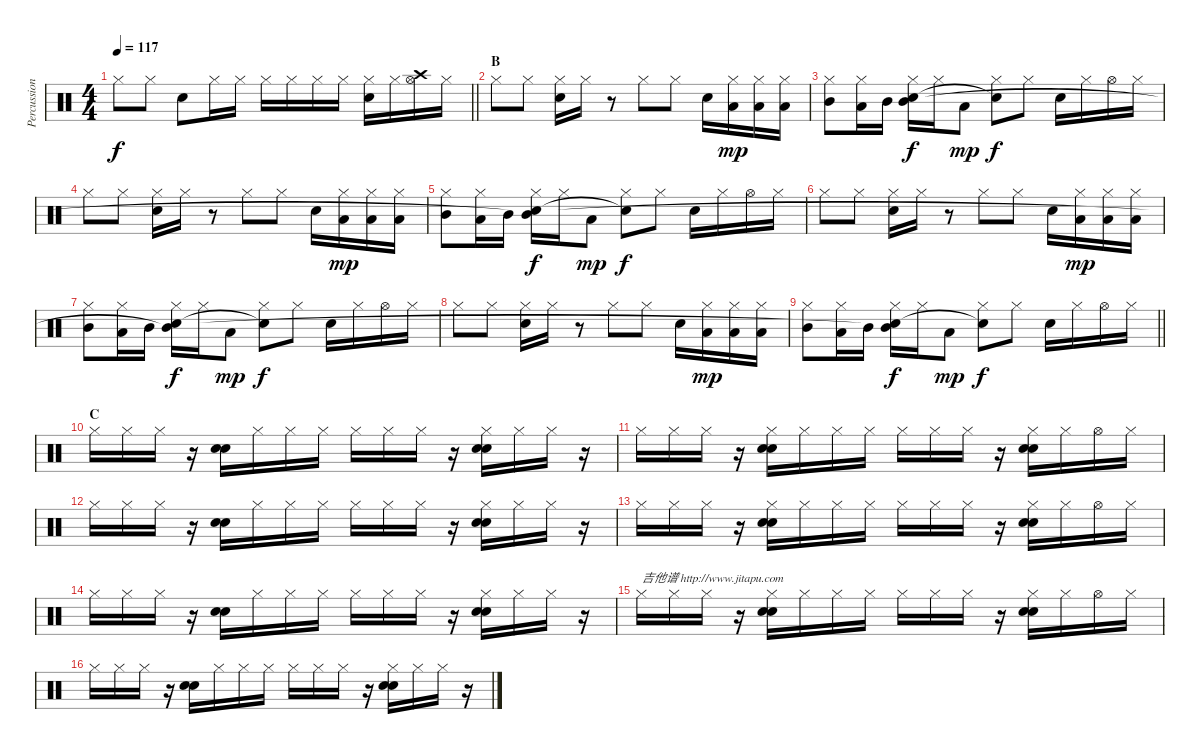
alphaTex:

\track ("Percussions" "Percussion") {instrument percussion}
\staff {score}
\articulation defaults
\ts (4 4)
\tempo 117
\clef neutral
\barLineRight lightlight
\ks c "Hi-Hat (closed)".8{dy f} "Hi-Hat (closed)".8 "Electric Snare (hit)".8 "Hi-Hat (closed)".16 "Hi-Hat (closed)".16 "Hi-Hat (closed)".16 "Hi-Hat (closed)".16 "Hi-Hat (closed)".16 "Hi-Hat (closed)".16
("Hi-Hat (closed)" "Electric Snare (hit)").16 "Hi-Hat (closed)".16 ("Crash high (hit)" "Hi-Hat (open)").16 "Hi-Hat (closed)".16 |
\section ("" "B")
"Hi-Hat (closed)".8 "Hi-Hat (closed)".8 ("Hi-Hat (closed)" "Electric Snare (hit)").16 "Hi-Hat (closed)".16 r.8 "Hi-Hat (closed)".8 "Hi-Hat (closed)".8 "Electric Snare (hit)".16 ("Hi-Hat (closed)" "Low Tom (hit)").16{dy mp} ("Hi-Hat (closed)" "Low Tom (hit)").16 ("Hi-Hat (closed)" "Low Tom (hit)").16 |
("Hi-Hat (closed)" "Mid Tom (hit)").8 ("Hi-Hat (closed)" "Low Tom (hit)").16 "Mid Tom (hit)".16 ("Hi-Hat (closed)" "Electric Snare (hit)" "Mid Tom (hit)").16{dy f} "Hi-Hat (closed)".16 "Low Tom (hit)".8{dy mp} ("Hi-Hat (closed)" "Snare (hit)"{t}).8{dy f} "Hi-Hat (closed)".8 "Electric Snare (hit)".16 "Hi-Hat (closed)".16 "Hi-Hat (open)".16 "Hi-Hat (closed)".16 |
"Hi-Hat (closed)".8 "Hi-Hat (closed)".8 ("Hi-Hat (closed)" "Electric Snare (hit)").16 "Hi-Hat (closed)".16 r.8 "Hi-Hat (closed)".8 "Hi-Hat (closed)".8 "Electric Snare (hit)".16 ("Hi-Hat (closed)" "Low Tom (hit)").16{dy mp} ("Hi-Hat (closed)" "Low Tom (hit)").16 ("Hi-Hat (closed)" "Low Tom (hit)").16 |
("Hi-Hat (closed)" "Mid Tom (hit)").8 ("Hi-Hat (closed)" "Low Tom (hit)").16 "Mid Tom (hit)".16 ("Hi-Hat (closed)" "Electric Snare (hit)" "Mid Tom (hit)"{t}).16{dy f} "Hi-Hat (closed)".16 "Low Tom (hit)".8{dy mp} ("Hi-Hat (closed)" "Snare (hit)"{t}).8{dy f} "Hi-Hat (closed)".8 "Electric Snare (hit)".16 "Hi-Hat (closed)".16 "Hi-Hat (open)".16 "Hi-Hat (closed)".16 |
"Hi-Hat (closed)".8 "Hi-Hat (closed)".8 ("Hi-Hat (closed)" "Electric Snare (hit)").16 "Hi-Hat (closed)".16 r.8 "Hi-Hat (closed)".8 "Hi-Hat (closed)".8 "Electric Snare (hit)".16 ("Hi-Hat (closed)" "Low Tom (hit)").16{dy mp} ("Hi-Hat (closed)" "Low Tom (hit)").16 ("Hi-Hat (closed)" "Low Tom (hit)").16 |
("Hi-Hat (closed)" "Mid Tom (hit)").8 ("Hi-Hat (closed)" "Low Tom (hit)").16 "Mid Tom (hit)".16 ("Hi-Hat (closed)" "Electric Snare (hit)" "Mid Tom (hit)"{t}).16{dy f} "Hi-Hat (closed)".16 "Low Tom (hit)".8{dy mp} ("Hi-Hat (closed)" "Snare (hit)"{t}).8{dy f} "Hi-Hat (closed)".8 "Electric Snare (hit)".16 "Hi-Hat (closed)".16 "Hi-Hat (open)".16 "Hi-Hat (closed)".16 |
"Hi-Hat (closed)".8 "Hi-Hat (closed)".8 ("Hi-Hat (closed)" "Electric Snare (hit)").16 "Hi-Hat (closed)".16 r.8 "Hi-Hat (closed)".8 "Hi-Hat (closed)".8 "Electric Snare (hit)".16 ("Hi-Hat (closed)" "Low Tom (hit)").16{dy mp} ("Hi-Hat (closed)" "Low Tom (hit)").16 ("Hi-Hat (closed)" "Low Tom (hit)").16 |
\barLineRight lightlight
("Hi-Hat (closed)" "Mid Tom (hit)").8 ("Hi-Hat (closed)" "Low Tom (hit)").16 "Mid Tom (hit)".16 ("Hi-Hat (closed)" "Electric Snare (hit)" "Mid Tom (hit)"{t}).16{dy f} "Hi-Hat (closed)".16 "Low Tom (hit)".8{dy mp} ("Hi-Hat (closed)" "Snare (hit)"{t}).8{dy f} "Hi-Hat (closed)".8 "Electric Snare (hit)".16 "Hi-Hat (closed)".16 "Hi-Hat (open)".16 "Hi-Hat (closed)".16 |
\section ("" "C")
"Hi-Hat (closed)".16 "Hi-Hat (closed)".16 "Hi-Hat (closed)".16 r.16 ("Electric Snare (hit)" "Hand Clap (hit)").16 "Hi-Hat (closed)".16 "Hi-Hat (closed)".16 "Hi-Hat (closed)".16 "Hi-Hat (closed)".16 "Hi-Hat (closed)".16 "Hi-Hat (closed)".16 r.16 ("Hi-Hat (closed)" "Electric Snare (hit)" "Hand Clap (hit)").16 "Hi-Hat (closed)".16 "Hi-Hat (closed)".16 r.16 |
"Hi-Hat (closed)".16 "Hi-Hat (closed)".16 "Hi-Hat (closed)".16 r.16 ("Hi-Hat (closed)" "Electric Snare (hit)" "Hand Clap (hit)").16 "Hi-Hat (closed)".16 "Hi-Hat (closed)".16 "Hi-Hat (closed)".16 "Hi-Hat (closed)".16 "Hi-Hat (closed)".16 "Hi-Hat (closed)".16 r.16 ("Hi-Hat (closed)" "Hand Clap (hit)" "Electric Snare (hit)").16 "Hi-Hat (closed)".16 "Hi-Hat (open)".16 "Hi-Hat (closed)".16 |
"Hi-Hat (closed)".16 "Hi-Hat (closed)".16 "Hi-Hat (closed)".16 r.16 ("Electric Snare (hit)" "Hand Clap (hit)").16 "Hi-Hat (closed)".16 "Hi-Hat (closed)".16 "Hi-Hat (closed)".16 "Hi-Hat (closed)".16 "Hi-Hat (closed)".16 "Hi-Hat (closed)".16 r.16 ("Hi-Hat (closed)" "Electric Snare (hit)" "Hand Clap (hit)").16 "Hi-Hat (closed)".16 "Hi-Hat (closed)".16 r.16 |
"Hi-Hat (closed)".16 "Hi-Hat (closed)".16 "Hi-Hat (closed)".16 r.16 ("Hi-Hat (closed)" "Electric Snare (hit)" "Hand Clap (hit)").16 "Hi-Hat (closed)".16 "Hi-Hat (closed)".16 "Hi-Hat (closed)".16 "Hi-Hat (closed)".16 "Hi-Hat (closed)".16 "Hi-Hat (closed)".16 r.16 ("Hi-Hat (closed)" "Hand Clap (hit)" "Electric Snare (hit)").16 "Hi-Hat (closed)".16 "Hi-Hat (open)".16 "Hi-Hat (closed)".16 |
"Hi-Hat (closed)".16 "Hi-Hat (closed)".16 "Hi-Hat (closed)".16 r.16 ("Electric Snare (hit)" "Hand Clap (hit)").16 "Hi-Hat (closed)".16 "Hi-Hat (closed)".16 "Hi-Hat (closed)".16 "Hi-Hat (closed)".16 "Hi-Hat (closed)".16 "Hi-Hat (closed)".16 r.16 ("Hi-Hat (closed)" "Electric Snare (hit)" "Hand Clap (hit)").16 "Hi-Hat (closed)".16 "Hi-Hat (closed)".16 r.16 |
"Hi-Hat (closed)".16{txt "吉他谱 http://www.jitapu.com"} "Hi-Hat (closed)".16 "Hi-Hat (closed)".16 r.16 ("Hi-Hat (closed)" "Electric Snare (hit)" "Hand Clap (hit)").16 "Hi-Hat (closed)".16 "Hi-Hat (closed)".16 "Hi-Hat (closed)".16 "Hi-Hat (closed)".16 "Hi-Hat (closed)".16 "Hi-Hat (closed)".16 r.16 ("Hi-Hat (closed)" "Hand Clap (hit)" "Electric Snare (hit)").16 "Hi-Hat (closed)".16 "Hi-Hat (open)".16 "Hi-Hat (closed)".16 |
"Hi-Hat (closed)".16 "Hi-Hat (closed)".16 "Hi-Hat (closed)".16 r.16 ("Electric Snare (hit)" "Hand Clap (hit)").16 "Hi-Hat (closed)".16 "Hi-Hat (closed)".16 "Hi-Hat (closed)".16 "Hi-Hat (closed)".16 "Hi-Hat (closed)".16 "Hi-Hat (closed)".16 r.16 ("Hi-Hat (closed)" "Electric Snare (hit)" "Hand Clap (hit)").16 "Hi-Hat (closed)".16 "Hi-Hat (closed)".16 r.16
